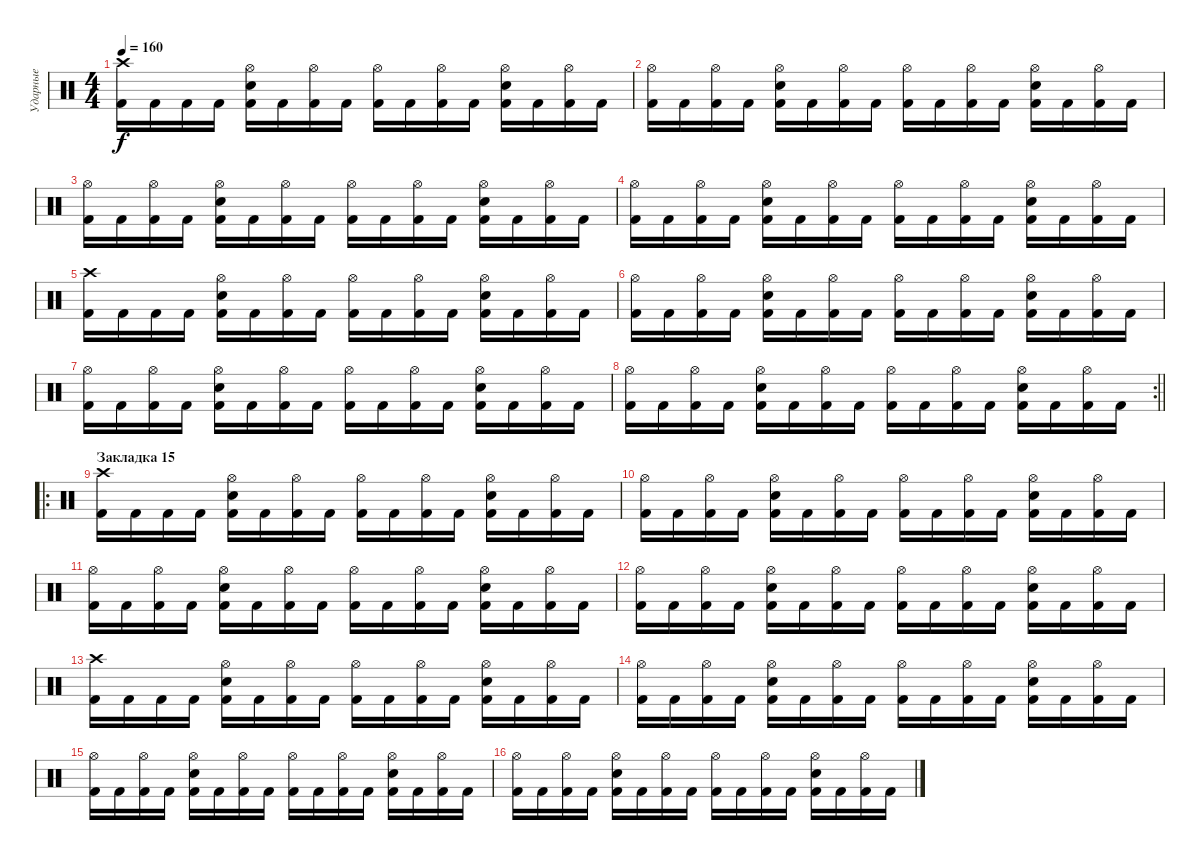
\track ("Ударные" "Ударные") {instrument percussion}
\staff {score}
\articulation defaults
\ts (4 4)
\tempo 160
\clef neutral
\ks c
("Crash high (hit)" "Kick (hit) 2").16{dy f} "Kick (hit) 2".16 "Kick (hit) 2".16 "Kick (hit) 2".16 ("Electric Snare (hit)" "Hi-Hat (open)" "Kick (hit) 2").16 "Kick (hit) 2".16 ("Hi-Hat (open)" "Kick (hit) 2").16 "Kick (hit) 2".16 ("Hi-Hat (open)" "Kick (hit) 2").16 "Kick (hit) 2".16 ("Hi-Hat (open)" "Kick (hit) 2").16 "Kick (hit) 2".16 ("Electric Snare (hit)" "Hi-Hat (open)" "Kick (hit) 2").16 "Kick (hit) 2".16 ("Hi-Hat (open)" "Kick (hit) 2").16 "Kick (hit) 2".16 |
("Hi-Hat (open)" "Kick (hit) 2").16 "Kick (hit) 2".16 ("Hi-Hat (open)" "Kick (hit) 2").16 "Kick (hit) 2".16 ("Electric Snare (hit)" "Hi-Hat (open)" "Kick (hit) 2").16 "Kick (hit) 2".16 ("Hi-Hat (open)" "Kick (hit) 2").16 "Kick (hit) 2".16 ("Hi-Hat (open)" "Kick (hit) 2").16 "Kick (hit) 2".16 ("Hi-Hat (open)" "Kick (hit) 2").16 "Kick (hit) 2".16 ("Electric Snare (hit)" "Hi-Hat (open)" "Kick (hit) 2").16 "Kick (hit) 2".16 ("Hi-Hat (open)" "Kick (hit) 2").16 "Kick (hit) 2".16 |
("Hi-Hat (open)" "Kick (hit) 2").16 "Kick (hit) 2".16 ("Hi-Hat (open)" "Kick (hit) 2").16 "Kick (hit) 2".16 ("Electric Snare (hit)" "Hi-Hat (open)" "Kick (hit) 2").16 "Kick (hit) 2".16 ("Hi-Hat (open)" "Kick (hit) 2").16 "Kick (hit) 2".16 ("Hi-Hat (open)" "Kick (hit) 2").16 "Kick (hit) 2".16 ("Hi-Hat (open)" "Kick (hit) 2").16 "Kick (hit) 2".16 ("Electric Snare (hit)" "Hi-Hat (open)" "Kick (hit) 2").16 "Kick (hit) 2".16 ("Hi-Hat (open)" "Kick (hit) 2").16 "Kick (hit) 2".16 |
("Hi-Hat (open)" "Kick (hit) 2").16 "Kick (hit) 2".16 ("Hi-Hat (open)" "Kick (hit) 2").16 "Kick (hit) 2".16 ("Electric Snare (hit)" "Hi-Hat (open)" "Kick (hit) 2").16 "Kick (hit) 2".16 ("Hi-Hat (open)" "Kick (hit) 2").16 "Kick (hit) 2".16 ("Hi-Hat (open)" "Kick (hit) 2").16 "Kick (hit) 2".16 ("Hi-Hat (open)" "Kick (hit) 2").16 "Kick (hit) 2".16 ("Electric Snare (hit)" "Hi-Hat (open)" "Kick (hit) 2").16 "Kick (hit) 2".16 ("Hi-Hat (open)" "Kick (hit) 2").16 "Kick (hit) 2".16 |
("Crash high (hit)" "Kick (hit) 2").16 "Kick (hit) 2".16 "Kick (hit) 2".16 "Kick (hit) 2".16 ("Electric Snare (hit)" "Hi-Hat (open)" "Kick (hit) 2").16 "Kick (hit) 2".16 ("Hi-Hat (open)" "Kick (hit) 2").16 "Kick (hit) 2".16 ("Hi-Hat (open)" "Kick (hit) 2").16 "Kick (hit) 2".16 ("Hi-Hat (open)" "Kick (hit) 2").16 "Kick (hit) 2".16 ("Electric Snare (hit)" "Hi-Hat (open)" "Kick (hit) 2").16 "Kick (hit) 2".16 ("Hi-Hat (open)" "Kick (hit) 2").16 "Kick (hit) 2".16 |
("Hi-Hat (open)" "Kick (hit) 2").16 "Kick (hit) 2".16 ("Hi-Hat (open)" "Kick (hit) 2").16 "Kick (hit) 2".16 ("Electric Snare (hit)" "Hi-Hat (open)" "Kick (hit) 2").16 "Kick (hit) 2".16 ("Hi-Hat (open)" "Kick (hit) 2").16 "Kick (hit) 2".16 ("Hi-Hat (open)" "Kick (hit) 2").16 "Kick (hit) 2".16 ("Hi-Hat (open)" "Kick (hit) 2").16 "Kick (hit) 2".16 ("Electric Snare (hit)" "Hi-Hat (open)" "Kick (hit) 2").16 "Kick (hit) 2".16 ("Hi-Hat (open)" "Kick (hit) 2").16 "Kick (hit) 2".16 |
("Hi-Hat (open)" "Kick (hit) 2").16 "Kick (hit) 2".16 ("Hi-Hat (open)" "Kick (hit) 2").16 "Kick (hit) 2".16 ("Electric Snare (hit)" "Hi-Hat (open)" "Kick (hit) 2").16 "Kick (hit) 2".16 ("Hi-Hat (open)" "Kick (hit) 2").16 "Kick (hit) 2".16 ("Hi-Hat (open)" "Kick (hit) 2").16 "Kick (hit) 2".16 ("Hi-Hat (open)" "Kick (hit) 2").16 "Kick (hit) 2".16 ("Electric Snare (hit)" "Hi-Hat (open)" "Kick (hit) 2").16 "Kick (hit) 2".16 ("Hi-Hat (open)" "Kick (hit) 2").16 "Kick (hit) 2".16 |
\rc 2
\barLineRight lightlight
("Hi-Hat (open)" "Kick (hit) 2").16 "Kick (hit) 2".16 ("Hi-Hat (open)" "Kick (hit) 2").16 "Kick (hit) 2".16 ("Electric Snare (hit)" "Hi-Hat (open)" "Kick (hit) 2").16 "Kick (hit) 2".16 ("Hi-Hat (open)" "Kick (hit) 2").16 "Kick (hit) 2".16 ("Hi-Hat (open)" "Kick (hit) 2").16 "Kick (hit) 2".16 ("Hi-Hat (open)" "Kick (hit) 2").16 "Kick (hit) 2".16 ("Electric Snare (hit)" "Hi-Hat (open)" "Kick (hit) 2").16 "Kick (hit) 2".16 ("Hi-Hat (open)" "Kick (hit) 2").16 "Kick (hit) 2".16 |
\ro
\section ("" "Закладка 15")
("Crash high (hit)" "Kick (hit) 2").16 "Kick (hit) 2".16 "Kick (hit) 2".16 "Kick (hit) 2".16 ("Electric Snare (hit)" "Hi-Hat (open)" "Kick (hit) 2").16 "Kick (hit) 2".16 ("Hi-Hat (open)" "Kick (hit) 2").16 "Kick (hit) 2".16 ("Hi-Hat (open)" "Kick (hit) 2").16 "Kick (hit) 2".16 ("Hi-Hat (open)" "Kick (hit) 2").16 "Kick (hit) 2".16 ("Electric Snare (hit)" "Hi-Hat (open)" "Kick (hit) 2").16 "Kick (hit) 2".16 ("Hi-Hat (open)" "Kick (hit) 2").16 "Kick (hit) 2".16 |
("Hi-Hat (open)" "Kick (hit) 2").16 "Kick (hit) 2".16 ("Hi-Hat (open)" "Kick (hit) 2").16 "Kick (hit) 2".16 ("Electric Snare (hit)" "Hi-Hat (open)" "Kick (hit) 2").16 "Kick (hit) 2".16 ("Hi-Hat (open)" "Kick (hit) 2").16 "Kick (hit) 2".16 ("Hi-Hat (open)" "Kick (hit) 2").16 "Kick (hit) 2".16 ("Hi-Hat (open)" "Kick (hit) 2").16 "Kick (hit) 2".16 ("Electric Snare (hit)" "Hi-Hat (open)" "Kick (hit) 2").16 "Kick (hit) 2".16 ("Hi-Hat (open)" "Kick (hit) 2").16 "Kick (hit) 2".16 |
("Hi-Hat (open)" "Kick (hit) 2").16 "Kick (hit) 2".16 ("Hi-Hat (open)" "Kick (hit) 2").16 "Kick (hit) 2".16 ("Electric Snare (hit)" "Hi-Hat (open)" "Kick (hit) 2").16 "Kick (hit) 2".16 ("Hi-Hat (open)" "Kick (hit) 2").16 "Kick (hit) 2".16 ("Hi-Hat (open)" "Kick (hit) 2").16 "Kick (hit) 2".16 ("Hi-Hat (open)" "Kick (hit) 2").16 "Kick (hit) 2".16 ("Electric Snare (hit)" "Hi-Hat (open)" "Kick (hit) 2").16 "Kick (hit) 2".16 ("Hi-Hat (open)" "Kick (hit) 2").16 "Kick (hit) 2".16 |
("Hi-Hat (open)" "Kick (hit) 2").16 "Kick (hit) 2".16 ("Hi-Hat (open)" "Kick (hit) 2").16 "Kick (hit) 2".16 ("Electric Snare (hit)" "Hi-Hat (open)" "Kick (hit) 2").16 "Kick (hit) 2".16 ("Hi-Hat (open)" "Kick (hit) 2").16 "Kick (hit) 2".16 ("Hi-Hat (open)" "Kick (hit) 2").16 "Kick (hit) 2".16 ("Hi-Hat (open)" "Kick (hit) 2").16 "Kick (hit) 2".16 ("Electric Snare (hit)" "Hi-Hat (open)" "Kick (hit) 2").16 "Kick (hit) 2".16 ("Hi-Hat (open)" "Kick (hit) 2").16 "Kick (hit) 2".16 |
("Crash high (hit)" "Kick (hit) 2").16 "Kick (hit) 2".16 "Kick (hit) 2".16 "Kick (hit) 2".16 ("Electric Snare (hit)" "Hi-Hat (open)" "Kick (hit) 2").16 "Kick (hit) 2".16 ("Hi-Hat (open)" "Kick (hit) 2").16 "Kick (hit) 2".16 ("Hi-Hat (open)" "Kick (hit) 2").16 "Kick (hit) 2".16 ("Hi-Hat (open)" "Kick (hit) 2").16 "Kick (hit) 2".16 ("Electric Snare (hit)" "Hi-Hat (open)" "Kick (hit) 2").16 "Kick (hit) 2".16 ("Hi-Hat (open)" "Kick (hit) 2").16 "Kick (hit) 2".16 |
("Hi-Hat (open)" "Kick (hit) 2").16 "Kick (hit) 2".16 ("Hi-Hat (open)" "Kick (hit) 2").16 "Kick (hit) 2".16 ("Electric Snare (hit)" "Hi-Hat (open)" "Kick (hit) 2").16 "Kick (hit) 2".16 ("Hi-Hat (open)" "Kick (hit) 2").16 "Kick (hit) 2".16 ("Hi-Hat (open)" "Kick (hit) 2").16 "Kick (hit) 2".16 ("Hi-Hat (open)" "Kick (hit) 2").16 "Kick (hit) 2".16 ("Electric Snare (hit)" "Hi-Hat (open)" "Kick (hit) 2").16 "Kick (hit) 2".16 ("Hi-Hat (open)" "Kick (hit) 2").16 "Kick (hit) 2".16 |
("Hi-Hat (open)" "Kick (hit) 2").16 "Kick (hit) 2".16 ("Hi-Hat (open)" "Kick (hit) 2").16 "Kick (hit) 2".16 ("Electric Snare (hit)" "Hi-Hat (open)" "Kick (hit) 2").16 "Kick (hit) 2".16 ("Hi-Hat (open)" "Kick (hit) 2").16 "Kick (hit) 2".16 ("Hi-Hat (open)" "Kick (hit) 2").16 "Kick (hit) 2".16 ("Hi-Hat (open)" "Kick (hit) 2").16 "Kick (hit) 2".16 ("Electric Snare (hit)" "Hi-Hat (open)" "Kick (hit) 2").16 "Kick (hit) 2".16 ("Hi-Hat (open)" "Kick (hit) 2").16 "Kick (hit) 2".16 |
("Hi-Hat (open)" "Kick (hit) 2").16 "Kick (hit) 2".16 ("Hi-Hat (open)" "Kick (hit) 2").16 "Kick (hit) 2".16 ("Electric Snare (hit)" "Hi-Hat (open)" "Kick (hit) 2").16 "Kick (hit) 2".16 ("Hi-Hat (open)" "Kick (hit) 2").16 "Kick (hit) 2".16 ("Hi-Hat (open)" "Kick (hit) 2").16 "Kick (hit) 2".16 ("Hi-Hat (open)" "Kick (hit) 2").16 "Kick (hit) 2".16 ("Electric Snare (hit)" "Hi-Hat (open)" "Kick (hit) 2").16 "Kick (hit) 2".16 ("Hi-Hat (open)" "Kick (hit) 2").16 "Kick (hit) 2".16
